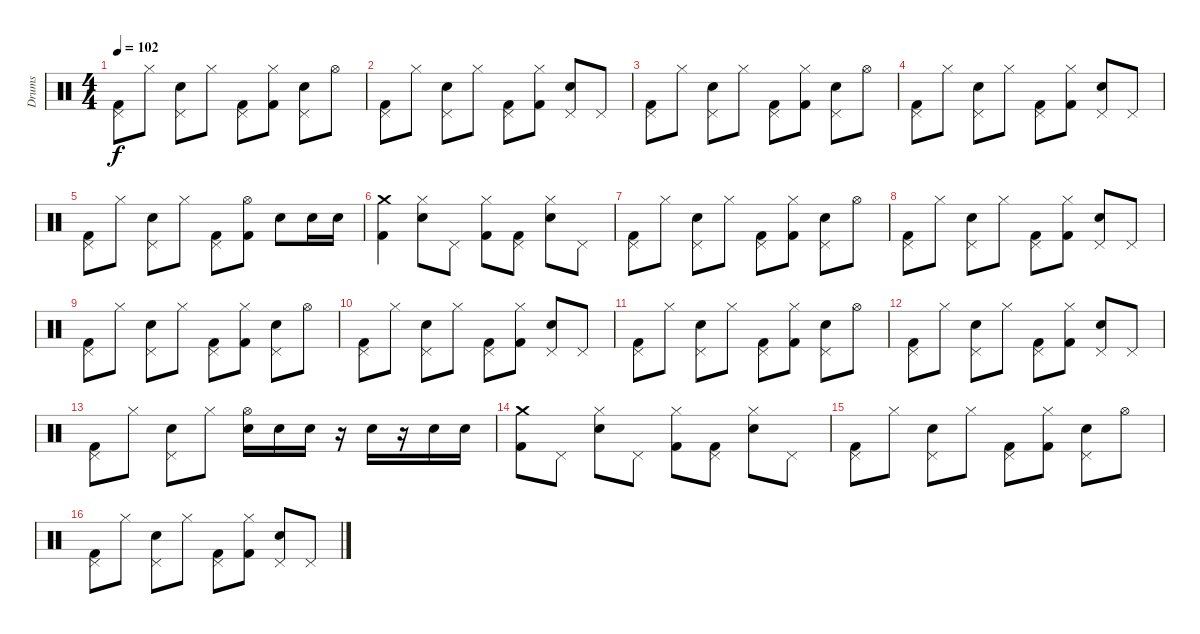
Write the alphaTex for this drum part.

\track ("Drums" "Drums") {instrument percussion}
\staff {score}
\articulation defaults
\ts (4 4)
\tempo 102
\clef neutral
\ks c
("Pedal Hi-Hat (hit)" "Kick (hit) 2").8{dy f} "Hi-Hat (closed)".8 ("Pedal Hi-Hat (hit)" "Electric Snare (hit)").8 "Hi-Hat (closed)".8 ("Pedal Hi-Hat (hit)" "Kick (hit) 2").8 ("Hi-Hat (closed)" "Kick (hit) 2").8 ("Pedal Hi-Hat (hit)" "Electric Snare (hit)").8 "Hi-Hat (open)".8 |
("Pedal Hi-Hat (hit)" "Kick (hit) 2").8 "Hi-Hat (closed)".8 ("Pedal Hi-Hat (hit)" "Electric Snare (hit)").8 "Hi-Hat (closed)".8 ("Pedal Hi-Hat (hit)" "Kick (hit) 2").8 ("Hi-Hat (closed)" "Kick (hit) 2").8 ("Pedal Hi-Hat (hit)" "Electric Snare (hit)").8 "Pedal Hi-Hat (hit)".8 |
("Pedal Hi-Hat (hit)" "Kick (hit) 2").8 "Hi-Hat (closed)".8 ("Pedal Hi-Hat (hit)" "Electric Snare (hit)").8 "Hi-Hat (closed)".8 ("Pedal Hi-Hat (hit)" "Kick (hit) 2").8 ("Hi-Hat (closed)" "Kick (hit) 2").8 ("Pedal Hi-Hat (hit)" "Electric Snare (hit)").8 "Hi-Hat (open)".8 |
("Pedal Hi-Hat (hit)" "Kick (hit) 2").8 "Hi-Hat (closed)".8 ("Pedal Hi-Hat (hit)" "Electric Snare (hit)").8 "Hi-Hat (closed)".8 ("Pedal Hi-Hat (hit)" "Kick (hit) 2").8 ("Hi-Hat (closed)" "Kick (hit) 2").8 ("Pedal Hi-Hat (hit)" "Electric Snare (hit)").8 "Pedal Hi-Hat (hit)".8 |
("Pedal Hi-Hat (hit)" "Kick (hit) 2").8 "Hi-Hat (closed)".8 ("Pedal Hi-Hat (hit)" "Electric Snare (hit)").8 "Hi-Hat (closed)".8 ("Pedal Hi-Hat (hit)" "Kick (hit) 2").8 ("Hi-Hat (open)" "Kick (hit) 2").8 "Electric Snare (hit)".8 "Electric Snare (hit)".16 "Electric Snare (hit)".16 |
("Crash medium (hit)" "Kick (hit) 2").4 ("Hi-Hat (closed)" "Electric Snare (hit)").8 "Pedal Hi-Hat (hit)".8 ("Hi-Hat (closed)" "Kick (hit) 2").8 ("Pedal Hi-Hat (hit)" "Kick (hit) 2").8 ("Hi-Hat (closed)" "Electric Snare (hit)").8 "Pedal Hi-Hat (hit)".8 |
("Pedal Hi-Hat (hit)" "Kick (hit) 2").8 "Hi-Hat (closed)".8 ("Pedal Hi-Hat (hit)" "Electric Snare (hit)").8 "Hi-Hat (closed)".8 ("Pedal Hi-Hat (hit)" "Kick (hit) 2").8 ("Hi-Hat (closed)" "Kick (hit) 2").8 ("Pedal Hi-Hat (hit)" "Electric Snare (hit)").8 "Hi-Hat (open)".8 |
("Pedal Hi-Hat (hit)" "Kick (hit) 2").8 "Hi-Hat (closed)".8 ("Pedal Hi-Hat (hit)" "Electric Snare (hit)").8 "Hi-Hat (closed)".8 ("Pedal Hi-Hat (hit)" "Kick (hit) 2").8 ("Hi-Hat (closed)" "Kick (hit) 2").8 ("Pedal Hi-Hat (hit)" "Electric Snare (hit)").8 "Pedal Hi-Hat (hit)".8 |
("Pedal Hi-Hat (hit)" "Kick (hit) 2").8 "Hi-Hat (closed)".8 ("Pedal Hi-Hat (hit)" "Electric Snare (hit)").8 "Hi-Hat (closed)".8 ("Pedal Hi-Hat (hit)" "Kick (hit) 2").8 ("Hi-Hat (closed)" "Kick (hit) 2").8 ("Pedal Hi-Hat (hit)" "Electric Snare (hit)").8 "Hi-Hat (open)".8 |
("Pedal Hi-Hat (hit)" "Kick (hit) 2").8 "Hi-Hat (closed)".8 ("Pedal Hi-Hat (hit)" "Electric Snare (hit)").8 "Hi-Hat (closed)".8 ("Pedal Hi-Hat (hit)" "Kick (hit) 2").8 ("Hi-Hat (closed)" "Kick (hit) 2").8 ("Pedal Hi-Hat (hit)" "Electric Snare (hit)").8 "Pedal Hi-Hat (hit)".8 |
("Pedal Hi-Hat (hit)" "Kick (hit) 2").8 "Hi-Hat (closed)".8 ("Pedal Hi-Hat (hit)" "Electric Snare (hit)").8 "Hi-Hat (closed)".8 ("Pedal Hi-Hat (hit)" "Kick (hit) 2").8 ("Hi-Hat (closed)" "Kick (hit) 2").8 ("Pedal Hi-Hat (hit)" "Electric Snare (hit)").8 "Hi-Hat (open)".8 |
("Pedal Hi-Hat (hit)" "Kick (hit) 2").8 "Hi-Hat (closed)".8 ("Pedal Hi-Hat (hit)" "Electric Snare (hit)").8 "Hi-Hat (closed)".8 ("Pedal Hi-Hat (hit)" "Kick (hit) 2").8 ("Hi-Hat (closed)" "Kick (hit) 2").8 ("Pedal Hi-Hat (hit)" "Electric Snare (hit)").8 "Pedal Hi-Hat (hit)".8 |
("Pedal Hi-Hat (hit)" "Kick (hit) 2").8 "Hi-Hat (closed)".8 ("Pedal Hi-Hat (hit)" "Electric Snare (hit)").8 "Hi-Hat (closed)".8 ("Hi-Hat (open)" "Electric Snare (hit)").16 "Electric Snare (hit)".16 "Electric Snare (hit)".16 r.16 "Electric Snare (hit)".16 r.16 "Electric Snare (hit)".16 "Electric Snare (hit)".16 |
("Crash medium (hit)" "Kick (hit) 2").8 "Pedal Hi-Hat (hit)".8 ("Hi-Hat (closed)" "Electric Snare (hit)").8 "Pedal Hi-Hat (hit)".8 ("Hi-Hat (closed)" "Kick (hit) 2").8 ("Pedal Hi-Hat (hit)" "Kick (hit) 2").8 ("Hi-Hat (closed)" "Electric Snare (hit)").8 "Pedal Hi-Hat (hit)".8 |
("Pedal Hi-Hat (hit)" "Kick (hit) 2").8 "Hi-Hat (closed)".8 ("Pedal Hi-Hat (hit)" "Electric Snare (hit)").8 "Hi-Hat (closed)".8 ("Pedal Hi-Hat (hit)" "Kick (hit) 2").8 ("Hi-Hat (closed)" "Kick (hit) 2").8 ("Pedal Hi-Hat (hit)" "Electric Snare (hit)").8 "Hi-Hat (open)".8 |
("Pedal Hi-Hat (hit)" "Kick (hit) 2").8 "Hi-Hat (closed)".8 ("Pedal Hi-Hat (hit)" "Electric Snare (hit)").8 "Hi-Hat (closed)".8 ("Pedal Hi-Hat (hit)" "Kick (hit) 2").8 ("Hi-Hat (closed)" "Kick (hit) 2").8 ("Pedal Hi-Hat (hit)" "Electric Snare (hit)").8 "Pedal Hi-Hat (hit)".8
